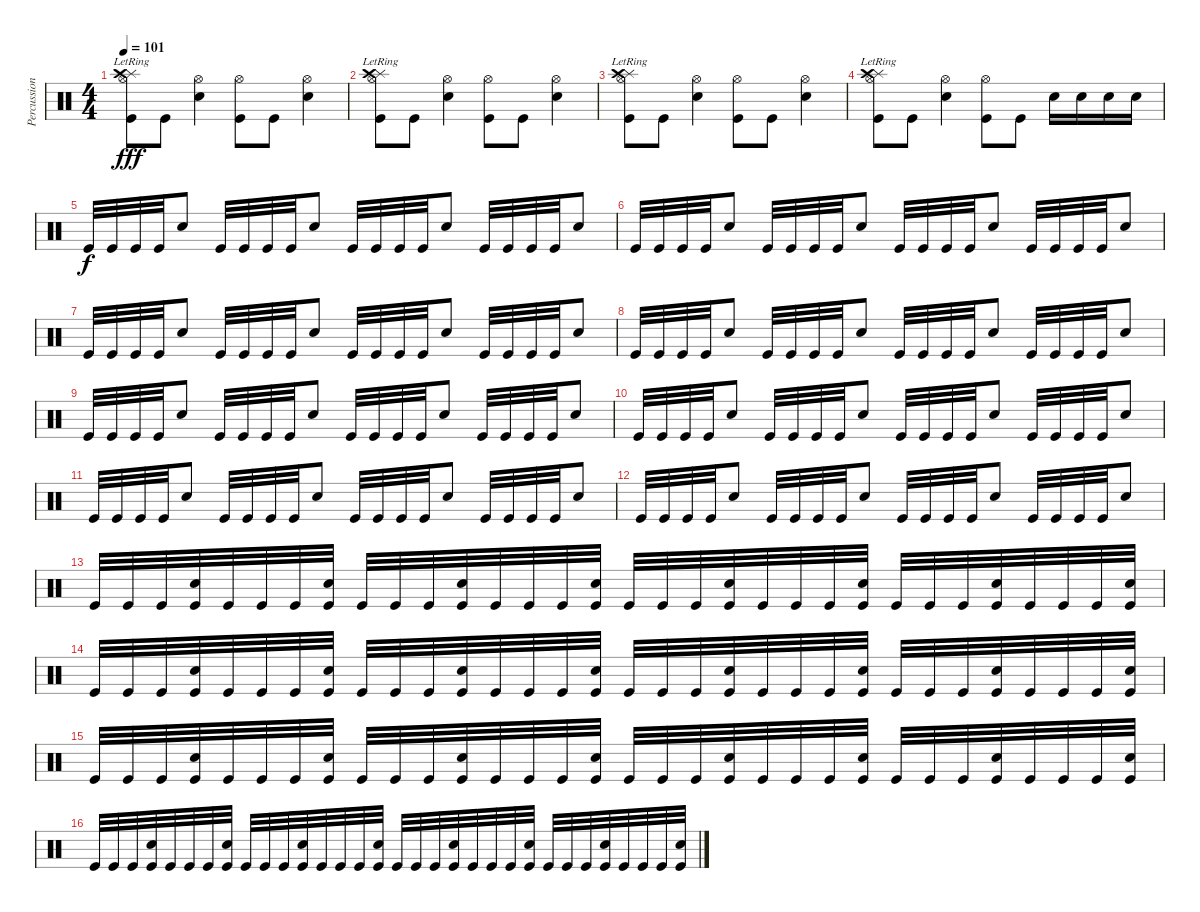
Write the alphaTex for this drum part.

\track ("Percussion" "Percussion") {instrument percussion}
\staff {score}
\articulation defaults
\ts (4 4)
\tempo 101
\clef neutral
\ks c
("Splash (hit)" "Hi-Hat (open)" "Crash high (hit)"{lr} "Kick (hit)").8{dy fff} "Kick (hit)".8 ("Hi-Hat (open)" "Snare (hit) 2").4 ("Hi-Hat (open)" "Kick (hit)").8 "Kick (hit)".8 ("Hi-Hat (open)" "Snare (hit) 2").4 |
("Splash (hit)" "Hi-Hat (open)" "Crash high (hit)"{lr} "Kick (hit)").8 "Kick (hit)".8 ("Hi-Hat (open)" "Snare (hit) 2").4 ("Hi-Hat (open)" "Kick (hit)").8 "Kick (hit)".8 ("Hi-Hat (open)" "Snare (hit) 2").4 |
("Splash (hit)" "Hi-Hat (open)" "Crash high (hit)"{lr} "Kick (hit)").8 "Kick (hit)".8 ("Hi-Hat (open)" "Snare (hit) 2").4 ("Hi-Hat (open)" "Kick (hit)").8 "Kick (hit)".8 ("Hi-Hat (open)" "Snare (hit) 2").4 |
("Splash (hit)" "Hi-Hat (open)" "Crash high (hit)"{lr} "Kick (hit)").8 "Kick (hit)".8 ("Hi-Hat (open)" "Snare (hit) 2").4 ("Hi-Hat (open)" "Kick (hit)").8 "Kick (hit)".8 "Electric Snare (hit)".16 "Electric Snare (hit)".16 "Electric Snare (hit)".16 "Electric Snare (hit)".16 |
"Kick (hit)".32{dy f} "Kick (hit)".32 "Kick (hit)".32 "Kick (hit)".32 "Electric Snare (hit)".8 "Kick (hit)".32 "Kick (hit)".32 "Kick (hit)".32 "Kick (hit)".32 "Electric Snare (hit)".8 "Kick (hit)".32 "Kick (hit)".32 "Kick (hit)".32 "Kick (hit)".32 "Electric Snare (hit)".8 "Kick (hit)".32 "Kick (hit)".32 "Kick (hit)".32 "Kick (hit)".32 "Electric Snare (hit)".8 |
"Kick (hit)".32 "Kick (hit)".32 "Kick (hit)".32 "Kick (hit)".32 "Electric Snare (hit)".8 "Kick (hit)".32 "Kick (hit)".32 "Kick (hit)".32 "Kick (hit)".32 "Electric Snare (hit)".8 "Kick (hit)".32 "Kick (hit)".32 "Kick (hit)".32 "Kick (hit)".32 "Electric Snare (hit)".8 "Kick (hit)".32 "Kick (hit)".32 "Kick (hit)".32 "Kick (hit)".32 "Electric Snare (hit)".8 |
"Kick (hit)".32 "Kick (hit)".32 "Kick (hit)".32 "Kick (hit)".32 "Electric Snare (hit)".8 "Kick (hit)".32 "Kick (hit)".32 "Kick (hit)".32 "Kick (hit)".32 "Electric Snare (hit)".8 "Kick (hit)".32 "Kick (hit)".32 "Kick (hit)".32 "Kick (hit)".32 "Electric Snare (hit)".8 "Kick (hit)".32 "Kick (hit)".32 "Kick (hit)".32 "Kick (hit)".32 "Electric Snare (hit)".8 |
"Kick (hit)".32 "Kick (hit)".32 "Kick (hit)".32 "Kick (hit)".32 "Electric Snare (hit)".8 "Kick (hit)".32 "Kick (hit)".32 "Kick (hit)".32 "Kick (hit)".32 "Electric Snare (hit)".8 "Kick (hit)".32 "Kick (hit)".32 "Kick (hit)".32 "Kick (hit)".32 "Electric Snare (hit)".8 "Kick (hit)".32 "Kick (hit)".32 "Kick (hit)".32 "Kick (hit)".32 "Electric Snare (hit)".8 |
"Kick (hit)".32 "Kick (hit)".32 "Kick (hit)".32 "Kick (hit)".32 "Electric Snare (hit)".8 "Kick (hit)".32 "Kick (hit)".32 "Kick (hit)".32 "Kick (hit)".32 "Electric Snare (hit)".8 "Kick (hit)".32 "Kick (hit)".32 "Kick (hit)".32 "Kick (hit)".32 "Electric Snare (hit)".8 "Kick (hit)".32 "Kick (hit)".32 "Kick (hit)".32 "Kick (hit)".32 "Electric Snare (hit)".8 |
"Kick (hit)".32 "Kick (hit)".32 "Kick (hit)".32 "Kick (hit)".32 "Electric Snare (hit)".8 "Kick (hit)".32 "Kick (hit)".32 "Kick (hit)".32 "Kick (hit)".32 "Electric Snare (hit)".8 "Kick (hit)".32 "Kick (hit)".32 "Kick (hit)".32 "Kick (hit)".32 "Electric Snare (hit)".8 "Kick (hit)".32 "Kick (hit)".32 "Kick (hit)".32 "Kick (hit)".32 "Electric Snare (hit)".8 |
"Kick (hit)".32 "Kick (hit)".32 "Kick (hit)".32 "Kick (hit)".32 "Electric Snare (hit)".8 "Kick (hit)".32 "Kick (hit)".32 "Kick (hit)".32 "Kick (hit)".32 "Electric Snare (hit)".8 "Kick (hit)".32 "Kick (hit)".32 "Kick (hit)".32 "Kick (hit)".32 "Electric Snare (hit)".8 "Kick (hit)".32 "Kick (hit)".32 "Kick (hit)".32 "Kick (hit)".32 "Electric Snare (hit)".8 |
"Kick (hit)".32 "Kick (hit)".32 "Kick (hit)".32 "Kick (hit)".32 "Electric Snare (hit)".8 "Kick (hit)".32 "Kick (hit)".32 "Kick (hit)".32 "Kick (hit)".32 "Electric Snare (hit)".8 "Kick (hit)".32 "Kick (hit)".32 "Kick (hit)".32 "Kick (hit)".32 "Electric Snare (hit)".8 "Kick (hit)".32 "Kick (hit)".32 "Kick (hit)".32 "Kick (hit)".32 "Electric Snare (hit)".8 |
"Kick (hit)".32 "Kick (hit)".32 "Kick (hit)".32 ("Electric Snare (hit)" "Kick (hit)").32 "Kick (hit)".32 "Kick (hit)".32 "Kick (hit)".32 ("Electric Snare (hit)" "Kick (hit)").32 "Kick (hit)".32 "Kick (hit)".32 "Kick (hit)".32 ("Electric Snare (hit)" "Kick (hit)").32 "Kick (hit)".32 "Kick (hit)".32 "Kick (hit)".32 ("Electric Snare (hit)" "Kick (hit)").32 "Kick (hit)".32 "Kick (hit)".32 "Kick (hit)".32 ("Electric Snare (hit)" "Kick (hit)").32 "Kick (hit)".32 "Kick (hit)".32 "Kick (hit)".32 ("Electric Snare (hit)" "Kick (hit)").32 "Kick (hit)".32 "Kick (hit)".32 "Kick (hit)".32 ("Electric Snare (hit)" "Kick (hit)").32 "Kick (hit)".32 "Kick (hit)".32 "Kick (hit)".32 ("Electric Snare (hit)" "Kick (hit)").32 |
"Kick (hit)".32 "Kick (hit)".32 "Kick (hit)".32 ("Electric Snare (hit)" "Kick (hit)").32 "Kick (hit)".32 "Kick (hit)".32 "Kick (hit)".32 ("Electric Snare (hit)" "Kick (hit)").32 "Kick (hit)".32 "Kick (hit)".32 "Kick (hit)".32 ("Electric Snare (hit)" "Kick (hit)").32 "Kick (hit)".32 "Kick (hit)".32 "Kick (hit)".32 ("Electric Snare (hit)" "Kick (hit)").32 "Kick (hit)".32 "Kick (hit)".32 "Kick (hit)".32 ("Electric Snare (hit)" "Kick (hit)").32 "Kick (hit)".32 "Kick (hit)".32 "Kick (hit)".32 ("Electric Snare (hit)" "Kick (hit)").32 "Kick (hit)".32 "Kick (hit)".32 "Kick (hit)".32 ("Electric Snare (hit)" "Kick (hit)").32 "Kick (hit)".32 "Kick (hit)".32 "Kick (hit)".32 ("Electric Snare (hit)" "Kick (hit)").32 |
"Kick (hit)".32 "Kick (hit)".32 "Kick (hit)".32 ("Electric Snare (hit)" "Kick (hit)").32 "Kick (hit)".32 "Kick (hit)".32 "Kick (hit)".32 ("Electric Snare (hit)" "Kick (hit)").32 "Kick (hit)".32 "Kick (hit)".32 "Kick (hit)".32 ("Electric Snare (hit)" "Kick (hit)").32 "Kick (hit)".32 "Kick (hit)".32 "Kick (hit)".32 ("Electric Snare (hit)" "Kick (hit)").32 "Kick (hit)".32 "Kick (hit)".32 "Kick (hit)".32 ("Electric Snare (hit)" "Kick (hit)").32 "Kick (hit)".32 "Kick (hit)".32 "Kick (hit)".32 ("Electric Snare (hit)" "Kick (hit)").32 "Kick (hit)".32 "Kick (hit)".32 "Kick (hit)".32 ("Electric Snare (hit)" "Kick (hit)").32 "Kick (hit)".32 "Kick (hit)".32 "Kick (hit)".32 ("Electric Snare (hit)" "Kick (hit)").32 |
"Kick (hit)".32 "Kick (hit)".32 "Kick (hit)".32 ("Electric Snare (hit)" "Kick (hit)").32 "Kick (hit)".32 "Kick (hit)".32 "Kick (hit)".32 ("Electric Snare (hit)" "Kick (hit)").32 "Kick (hit)".32 "Kick (hit)".32 "Kick (hit)".32 ("Electric Snare (hit)" "Kick (hit)").32 "Kick (hit)".32 "Kick (hit)".32 "Kick (hit)".32 ("Electric Snare (hit)" "Kick (hit)").32 "Kick (hit)".32 "Kick (hit)".32 "Kick (hit)".32 ("Electric Snare (hit)" "Kick (hit)").32 "Kick (hit)".32 "Kick (hit)".32 "Kick (hit)".32 ("Electric Snare (hit)" "Kick (hit)").32 "Kick (hit)".32 "Kick (hit)".32 "Kick (hit)".32 ("Electric Snare (hit)" "Kick (hit)").32 "Kick (hit)".32 "Kick (hit)".32 "Kick (hit)".32 ("Electric Snare (hit)" "Kick (hit)").32
